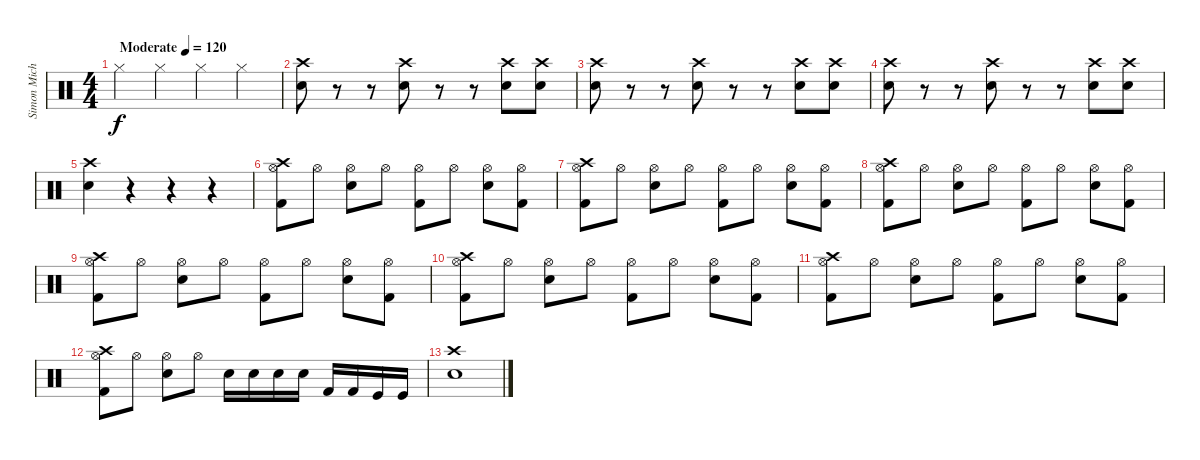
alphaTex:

\track ("Simon Michael" "Simon Mich") {instrument percussion}
\staff {score}
\articulation defaults
\ts (4 4)
\tempo (120 "Moderate")
\tempo 135
\tempo (120 "Moderate")
\clef neutral
\ks c "Hi-Hat (closed)".4{dy f} "Hi-Hat (closed)".4 "Hi-Hat (closed)".4 "Hi-Hat (closed)".4
|
("Crash high (hit)" "Snare (hit) 2").8 r.8 r.8 ("Crash high (hit)" "Snare (hit) 2").8 r.8 r.8 ("Crash high (hit)" "Snare (hit) 2").8 ("Crash high (hit)" "Snare (hit) 2").8 |
("Crash high (hit)" "Snare (hit) 2").8 r.8 r.8 ("Crash high (hit)" "Snare (hit) 2").8 r.8 r.8 ("Crash high (hit)" "Snare (hit) 2").8 ("Crash high (hit)" "Snare (hit) 2").8 |
("Crash high (hit)" "Snare (hit) 2").8 r.8 r.8 ("Crash high (hit)" "Snare (hit) 2").8 r.8 r.8 ("Crash high (hit)" "Snare (hit) 2").8 ("Crash high (hit)" "Snare (hit) 2").8 |
("Crash high (hit)" "Snare (hit) 2").4 r.4 r.4 r.4 |
("Crash high (hit)" "Hi-Hat (open)" "Kick (hit) 2").8 "Hi-Hat (open)".8 ("Hi-Hat (open)" "Snare (hit) 2").8 "Hi-Hat (open)".8 ("Hi-Hat (open)" "Kick (hit) 2").8 "Hi-Hat (open)".8 ("Hi-Hat (open)" "Snare (hit) 2").8 ("Hi-Hat (open)" "Kick (hit) 2").8 |
("Crash high (hit)" "Hi-Hat (open)" "Kick (hit) 2").8 "Hi-Hat (open)".8 ("Hi-Hat (open)" "Snare (hit) 2").8 "Hi-Hat (open)".8 ("Hi-Hat (open)" "Kick (hit) 2").8 "Hi-Hat (open)".8 ("Hi-Hat (open)" "Snare (hit) 2").8 ("Hi-Hat (open)" "Kick (hit) 2").8 |
("Crash high (hit)" "Hi-Hat (open)" "Kick (hit) 2").8 "Hi-Hat (open)".8 ("Hi-Hat (open)" "Snare (hit) 2").8 "Hi-Hat (open)".8 ("Hi-Hat (open)" "Kick (hit) 2").8 "Hi-Hat (open)".8 ("Hi-Hat (open)" "Snare (hit) 2").8 ("Hi-Hat (open)" "Kick (hit) 2").8 |
("Crash high (hit)" "Hi-Hat (open)" "Kick (hit) 2").8 "Hi-Hat (open)".8 ("Hi-Hat (open)" "Snare (hit) 2").8 "Hi-Hat (open)".8 ("Hi-Hat (open)" "Kick (hit) 2").8 "Hi-Hat (open)".8 ("Hi-Hat (open)" "Snare (hit) 2").8 ("Hi-Hat (open)" "Kick (hit) 2").8 |
("Crash high (hit)" "Hi-Hat (open)" "Kick (hit) 2").8 "Hi-Hat (open)".8 ("Hi-Hat (open)" "Snare (hit) 2").8 "Hi-Hat (open)".8 ("Hi-Hat (open)" "Kick (hit) 2").8 "Hi-Hat (open)".8 ("Hi-Hat (open)" "Snare (hit) 2").8 ("Hi-Hat (open)" "Kick (hit) 2").8 |
("Crash high (hit)" "Hi-Hat (open)" "Kick (hit) 2").8 "Hi-Hat (open)".8 ("Hi-Hat (open)" "Snare (hit) 2").8 "Hi-Hat (open)".8 ("Hi-Hat (open)" "Kick (hit) 2").8 "Hi-Hat (open)".8 ("Hi-Hat (open)" "Snare (hit) 2").8 ("Hi-Hat (open)" "Kick (hit) 2").8 |
("Crash high (hit)" "Hi-Hat (open)" "Kick (hit) 2").8 "Hi-Hat (open)".8 ("Hi-Hat (open)" "Snare (hit) 2").8 "Hi-Hat (open)".8 "Snare (hit) 2".16 "Snare (hit) 2".16 "Electric Snare (hit)".16 "Electric Snare (hit)".16 "Kick (hit) 2".16 "Kick (hit) 2".16 "Kick (hit)".16 "Kick (hit)".16 |
("Crash high (hit)" "Snare (hit) 2").1
